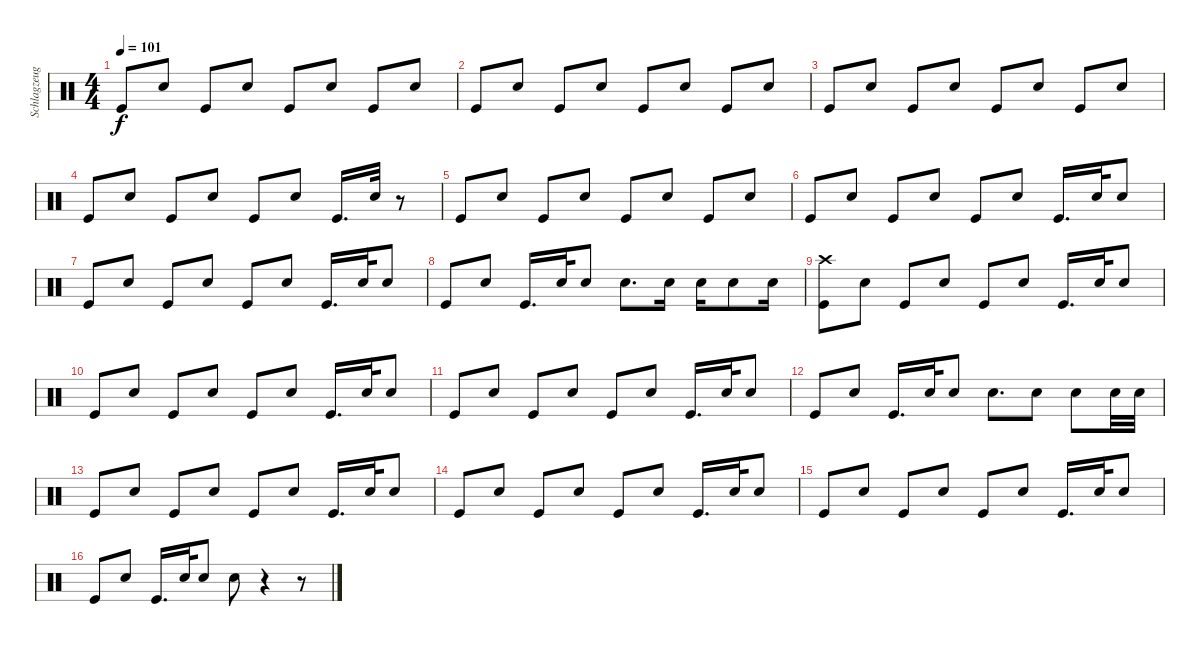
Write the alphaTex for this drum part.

\track ("Schlagzeug" "Schlagzeug") {instrument percussion}
\staff {score}
\articulation defaults
\ts (4 4)
\tempo 101
\clef neutral
\ks c "Kick (hit)".8{dy f} "Snare (hit) 2".8 "Kick (hit)".8 "Snare (hit) 2".8 "Kick (hit)".8 "Snare (hit) 2".8 "Kick (hit)".8 "Snare (hit) 2".8
|
"Kick (hit)".8 "Snare (hit) 2".8 "Kick (hit)".8 "Snare (hit) 2".8 "Kick (hit)".8 "Snare (hit) 2".8 "Kick (hit)".8 "Snare (hit) 2".8 |
"Kick (hit)".8 "Snare (hit) 2".8 "Kick (hit)".8 "Snare (hit) 2".8 "Kick (hit)".8 "Snare (hit) 2".8 "Kick (hit)".8 "Snare (hit) 2".8 |
"Kick (hit)".8 "Snare (hit) 2".8 "Kick (hit)".8 "Snare (hit) 2".8 "Kick (hit)".8 "Snare (hit) 2".8 "Kick (hit)".16{d} "Snare (hit) 2".32 r.8 |
"Kick (hit)".8 "Snare (hit) 2".8 "Kick (hit)".8 "Snare (hit) 2".8 "Kick (hit)".8 "Snare (hit) 2".8 "Kick (hit)".8 "Snare (hit) 2".8 |
"Kick (hit)".8 "Snare (hit) 2".8 "Kick (hit)".8 "Snare (hit) 2".8 "Kick (hit)".8 "Snare (hit) 2".8 "Kick (hit)".16{d} "Snare (hit) 2".32 "Snare (hit) 2".8 |
"Kick (hit)".8 "Snare (hit) 2".8 "Kick (hit)".8 "Snare (hit) 2".8 "Kick (hit)".8 "Snare (hit) 2".8 "Kick (hit)".16{d} "Snare (hit) 2".32 "Snare (hit) 2".8 |
"Kick (hit)".8 "Snare (hit) 2".8 "Kick (hit)".16{d} "Snare (hit) 2".32 "Snare (hit) 2".8 "Snare (hit) 2".8{d} "Snare (hit) 2".16 "Snare (hit) 2".16 "Snare (hit) 2".8 "Snare (hit) 2".16 |
("Crash high (hit)" "Kick (hit)").8 "Snare (hit) 2".8 "Kick (hit)".8 "Snare (hit) 2".8 "Kick (hit)".8 "Snare (hit) 2".8 "Kick (hit)".16{d} "Snare (hit) 2".32 "Snare (hit) 2".8 |
"Kick (hit)".8 "Snare (hit) 2".8 "Kick (hit)".8 "Snare (hit) 2".8 "Kick (hit)".8 "Snare (hit) 2".8 "Kick (hit)".16{d} "Snare (hit) 2".32 "Snare (hit) 2".8 |
"Kick (hit)".8 "Snare (hit) 2".8 "Kick (hit)".8 "Snare (hit) 2".8 "Kick (hit)".8 "Snare (hit) 2".8 "Kick (hit)".16{d} "Snare (hit) 2".32 "Snare (hit) 2".8 |
"Kick (hit)".8 "Snare (hit) 2".8 "Kick (hit)".16{d} "Snare (hit) 2".32 "Snare (hit) 2".8 "Snare (hit) 2".8{d} "Snare (hit) 2".8 "Snare (hit) 2".8 "Snare (hit) 2".32 "Snare (hit) 2".32 |
"Kick (hit)".8 "Snare (hit) 2".8 "Kick (hit)".8 "Snare (hit) 2".8 "Kick (hit)".8 "Snare (hit) 2".8 "Kick (hit)".16{d} "Snare (hit) 2".32 "Snare (hit) 2".8 |
"Kick (hit)".8 "Snare (hit) 2".8 "Kick (hit)".8 "Snare (hit) 2".8 "Kick (hit)".8 "Snare (hit) 2".8 "Kick (hit)".16{d} "Snare (hit) 2".32 "Snare (hit) 2".8 |
"Kick (hit)".8 "Snare (hit) 2".8 "Kick (hit)".8 "Snare (hit) 2".8 "Kick (hit)".8 "Snare (hit) 2".8 "Kick (hit)".16{d} "Snare (hit) 2".32 "Snare (hit) 2".8 |
"Kick (hit)".8 "Snare (hit) 2".8 "Kick (hit)".16{d} "Snare (hit) 2".32 "Snare (hit) 2".8 "Snare (hit) 2".8 r.4 r.8
